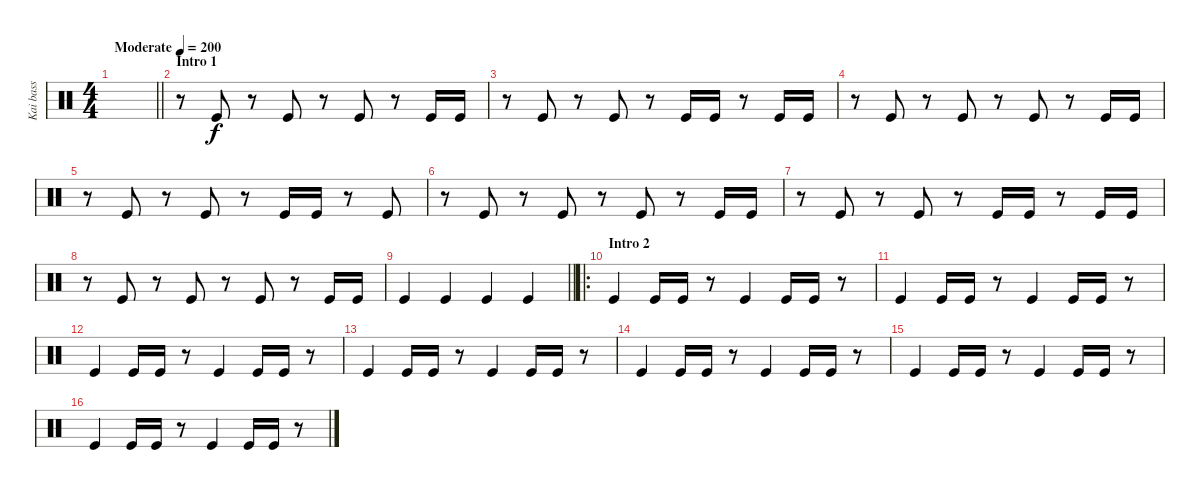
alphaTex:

\track ("Kai bass" "Kai bass") {instrument percussion}
\staff {score}
\articulation defaults
\ts (4 4)
\tempo (200 "Moderate")
\clef neutral
\barLineRight lightlight
\ks c
|
\section ("" "Intro 1")
r.8 "Kick (hit)".8 r.8 "Kick (hit)".8 r.8 "Kick (hit)".8 r.8 "Kick (hit)".16 "Kick (hit)".16 |
r.8 "Kick (hit)".8 r.8 "Kick (hit)".8 r.8 "Kick (hit)".16 "Kick (hit)".16 r.8 "Kick (hit)".16 "Kick (hit)".16 |
r.8 "Kick (hit)".8 r.8 "Kick (hit)".8 r.8 "Kick (hit)".8 r.8 "Kick (hit)".16 "Kick (hit)".16 |
r.8 "Kick (hit)".8 r.8 "Kick (hit)".8 r.8 "Kick (hit)".16 "Kick (hit)".16 r.8 "Kick (hit)".8 |
r.8 "Kick (hit)".8 r.8 "Kick (hit)".8 r.8 "Kick (hit)".8 r.8 "Kick (hit)".16 "Kick (hit)".16 |
r.8 "Kick (hit)".8 r.8 "Kick (hit)".8 r.8 "Kick (hit)".16 "Kick (hit)".16 r.8 "Kick (hit)".16 "Kick (hit)".16 |
r.8 "Kick (hit)".8 r.8 "Kick (hit)".8 r.8 "Kick (hit)".8 r.8 "Kick (hit)".16 "Kick (hit)".16 |
\barLineRight lightlight "Kick (hit)".4 "Kick (hit)".4 "Kick (hit)".4 "Kick (hit)".4
|
\ro
\section ("" "Intro 2")
"Kick (hit)".4 "Kick (hit)".16 "Kick (hit)".16 r.8 "Kick (hit)".4 "Kick (hit)".16 "Kick (hit)".16 r.8 |
"Kick (hit)".4 "Kick (hit)".16 "Kick (hit)".16 r.8 "Kick (hit)".4 "Kick (hit)".16 "Kick (hit)".16 r.8 |
"Kick (hit)".4 "Kick (hit)".16 "Kick (hit)".16 r.8 "Kick (hit)".4 "Kick (hit)".16 "Kick (hit)".16 r.8 |
"Kick (hit)".4 "Kick (hit)".16 "Kick (hit)".16 r.8 "Kick (hit)".4 "Kick (hit)".16 "Kick (hit)".16 r.8 |
"Kick (hit)".4 "Kick (hit)".16 "Kick (hit)".16 r.8 "Kick (hit)".4 "Kick (hit)".16 "Kick (hit)".16 r.8 |
"Kick (hit)".4 "Kick (hit)".16 "Kick (hit)".16 r.8 "Kick (hit)".4 "Kick (hit)".16 "Kick (hit)".16 r.8 |
"Kick (hit)".4 "Kick (hit)".16 "Kick (hit)".16 r.8 "Kick (hit)".4 "Kick (hit)".16 "Kick (hit)".16 r.8
